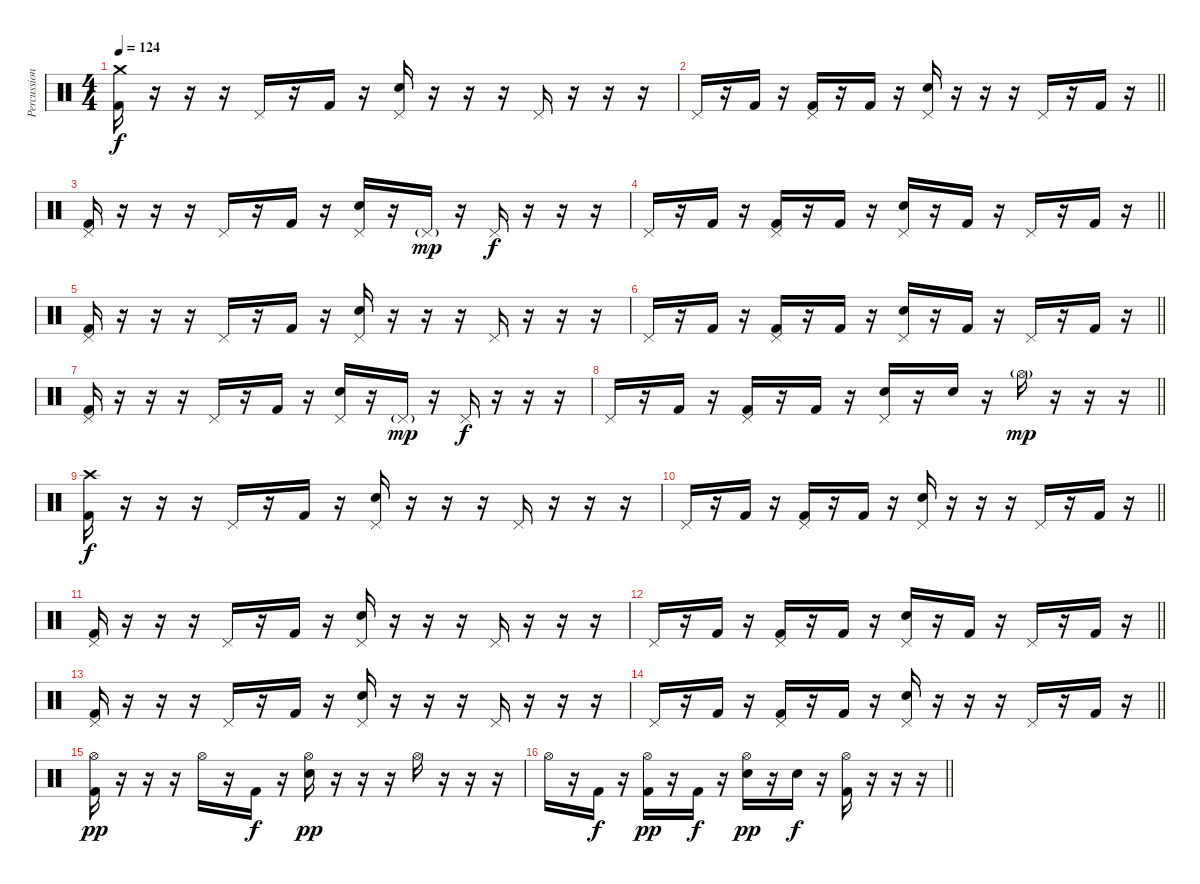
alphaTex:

\track ("Percussion" "Percussion") {instrument percussion}
\staff {score}
\articulation defaults
\ts (4 4)
\section ("" "")
\tempo 124
\clef neutral
\ks c
("Kick (hit) 2" "Crash medium (hit)").16{dy f} r.16 r.16 r.16 "Pedal Hi-Hat (hit)".16 r.16 "Kick (hit) 2".16 r.16 ("Electric Snare (hit)" "Pedal Hi-Hat (hit)").16 r.16 r.16 r.16 "Pedal Hi-Hat (hit)".16 r.16 r.16 r.16 |
\barLineRight lightlight "Pedal Hi-Hat (hit)".16
r.16 "Kick (hit) 2".16 r.16 ("Kick (hit) 2" "Pedal Hi-Hat (hit)").16 r.16 "Kick (hit) 2".16 r.16 ("Electric Snare (hit)" "Pedal Hi-Hat (hit)").16 r.16 r.16 r.16 "Pedal Hi-Hat (hit)".16 r.16 "Kick (hit) 2".16 r.16 |
("Kick (hit) 2" "Pedal Hi-Hat (hit)").16 r.16 r.16 r.16 "Pedal Hi-Hat (hit)".16 r.16 "Kick (hit) 2".16 r.16 ("Electric Snare (hit)" "Pedal Hi-Hat (hit)").16 r.16 "Pedal Hi-Hat (hit)"{g}.16{dy mp} r.16 "Pedal Hi-Hat (hit)".16{dy f} r.16 r.16 r.16 |
\barLineRight lightlight "Pedal Hi-Hat (hit)".16
r.16 "Kick (hit) 2".16 r.16 ("Kick (hit) 2" "Pedal Hi-Hat (hit)").16 r.16 "Kick (hit) 2".16 r.16 ("Electric Snare (hit)" "Pedal Hi-Hat (hit)").16 r.16 "Kick (hit) 2".16 r.16 "Pedal Hi-Hat (hit)".16 r.16 "Kick (hit) 2".16 r.16 |
("Kick (hit) 2" "Pedal Hi-Hat (hit)").16 r.16 r.16 r.16 "Pedal Hi-Hat (hit)".16 r.16 "Kick (hit) 2".16 r.16 ("Electric Snare (hit)" "Pedal Hi-Hat (hit)").16 r.16 r.16 r.16 "Pedal Hi-Hat (hit)".16 r.16 r.16 r.16 |
\barLineRight lightlight "Pedal Hi-Hat (hit)".16
r.16 "Kick (hit) 2".16 r.16 ("Kick (hit) 2" "Pedal Hi-Hat (hit)").16 r.16 "Kick (hit) 2".16 r.16 ("Electric Snare (hit)" "Pedal Hi-Hat (hit)").16 r.16 "Kick (hit) 2".16 r.16 "Pedal Hi-Hat (hit)".16 r.16 "Kick (hit) 2".16 r.16 |
("Kick (hit) 2" "Pedal Hi-Hat (hit)").16 r.16 r.16 r.16 "Pedal Hi-Hat (hit)".16 r.16 "Kick (hit) 2".16 r.16 ("Electric Snare (hit)" "Pedal Hi-Hat (hit)").16 r.16 "Pedal Hi-Hat (hit)"{g}.16{dy mp} r.16 "Pedal Hi-Hat (hit)".16{dy f} r.16 r.16 r.16 |
\barLineRight lightlight "Pedal Hi-Hat (hit)".16
r.16 "Kick (hit) 2".16 r.16 ("Kick (hit) 2" "Pedal Hi-Hat (hit)").16 r.16 "Kick (hit) 2".16 r.16 ("Electric Snare (hit)" "Pedal Hi-Hat (hit)").16 r.16 "Electric Snare (hit)".16 r.16 "Hi-Hat (open)"{g}.16{dy mp} r.16 r.16 r.16 |
\section ("" "")
("Kick (hit) 2" "Crash high (hit)").16{dy f} r.16 r.16 r.16 "Pedal Hi-Hat (hit)".16 r.16 "Kick (hit) 2".16 r.16 ("Electric Snare (hit)" "Pedal Hi-Hat (hit)").16 r.16 r.16 r.16 "Pedal Hi-Hat (hit)".16 r.16 r.16 r.16 |
\barLineRight lightlight "Pedal Hi-Hat (hit)".16
r.16 "Kick (hit) 2".16 r.16 ("Kick (hit) 2" "Pedal Hi-Hat (hit)").16 r.16 "Kick (hit) 2".16 r.16 ("Electric Snare (hit)" "Pedal Hi-Hat (hit)").16 r.16 r.16 r.16 "Pedal Hi-Hat (hit)".16 r.16 "Kick (hit) 2".16 r.16 |
("Kick (hit) 2" "Pedal Hi-Hat (hit)").16 r.16 r.16 r.16 "Pedal Hi-Hat (hit)".16 r.16 "Kick (hit) 2".16 r.16 ("Electric Snare (hit)" "Pedal Hi-Hat (hit)").16 r.16 r.16 r.16 "Pedal Hi-Hat (hit)".16 r.16 r.16 r.16 |
\barLineRight lightlight "Pedal Hi-Hat (hit)".16
r.16 "Kick (hit) 2".16 r.16 ("Kick (hit) 2" "Pedal Hi-Hat (hit)").16 r.16 "Kick (hit) 2".16 r.16 ("Electric Snare (hit)" "Pedal Hi-Hat (hit)").16 r.16 "Kick (hit) 2".16 r.16 "Pedal Hi-Hat (hit)".16 r.16 "Kick (hit) 2".16 r.16 |
("Kick (hit) 2" "Pedal Hi-Hat (hit)").16 r.16 r.16 r.16 "Pedal Hi-Hat (hit)".16 r.16 "Kick (hit) 2".16 r.16 ("Electric Snare (hit)" "Pedal Hi-Hat (hit)").16 r.16 r.16 r.16 "Pedal Hi-Hat (hit)".16 r.16 r.16 r.16 |
\barLineRight lightlight "Pedal Hi-Hat (hit)".16
r.16 "Kick (hit) 2".16 r.16 ("Kick (hit) 2" "Pedal Hi-Hat (hit)").16 r.16 "Kick (hit) 2".16 r.16 ("Electric Snare (hit)" "Pedal Hi-Hat (hit)").16 r.16 r.16 r.16 "Pedal Hi-Hat (hit)".16 r.16 "Kick (hit) 2".16 r.16 |
("Kick (hit) 2" "Hi-Hat (open)").16{dy pp} r.16 r.16 r.16 "Hi-Hat (open)".16 r.16 "Kick (hit) 2".16{dy f} r.16 ("Electric Snare (hit)" "Hi-Hat (open)").16{dy pp} r.16 r.16 r.16 "Hi-Hat (open)".16 r.16 r.16 r.16 |
\barLineRight lightlight "Hi-Hat (open)".16
r.16 "Kick (hit) 2".16{dy f} r.16 ("Kick (hit) 2" "Hi-Hat (open)").16{dy pp} r.16 "Kick (hit) 2".16{dy f} r.16 ("Electric Snare (hit)" "Hi-Hat (open)").16{dy pp} r.16 "Electric Snare (hit)".16{dy f} r.16 ("Kick (hit) 2" "Hi-Hat (open)").16 r.16 r.16 r.16
